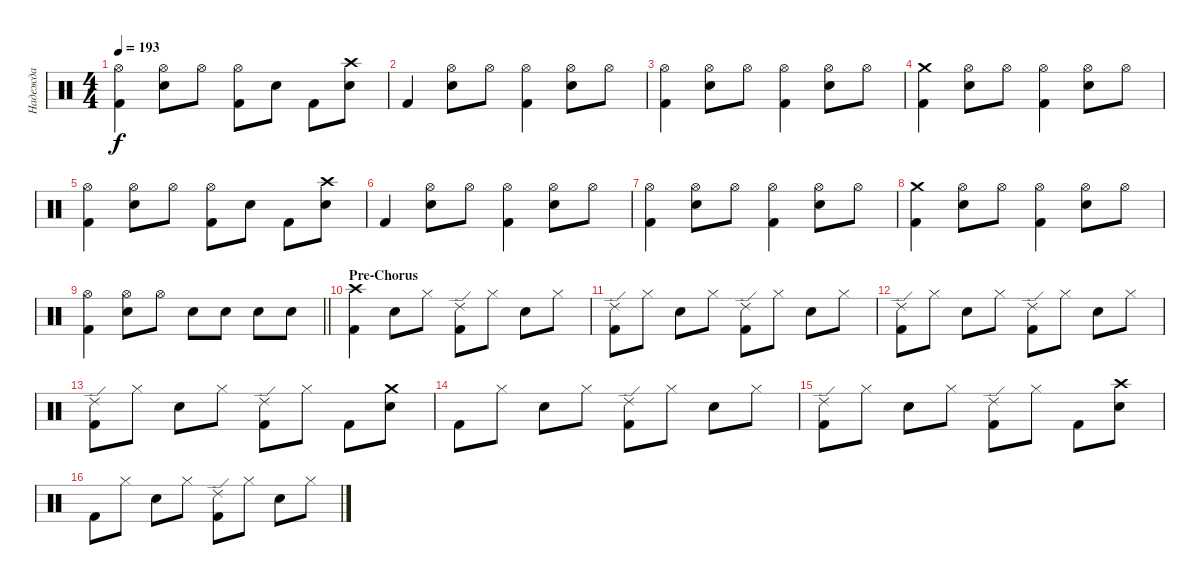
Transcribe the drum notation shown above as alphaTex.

\track ("Надежда" "Надежда") {instrument percussion}
\staff {score}
\articulation defaults
\ts (4 4)
\tempo 193
\clef neutral
\ks c
("Hi-Hat (open)" "Kick (hit) 2").4{dy f} ("Hi-Hat (open)" "Snare (hit) 2").8 "Hi-Hat (open)".8 ("Hi-Hat (open)" "Kick (hit) 2").8 "Snare (hit) 2".8 "Kick (hit) 2".8 ("Crash high (hit)" "Snare (hit) 2").8 |
"Kick (hit) 2".4 ("Hi-Hat (open)" "Snare (hit) 2").8 "Hi-Hat (open)".8 ("Hi-Hat (open)" "Kick (hit) 2").4 ("Hi-Hat (open)" "Snare (hit) 2").8 "Hi-Hat (open)".8 |
("Hi-Hat (open)" "Kick (hit) 2").4 ("Hi-Hat (open)" "Snare (hit) 2").8 "Hi-Hat (open)".8 ("Hi-Hat (open)" "Kick (hit) 2").4 ("Hi-Hat (open)" "Snare (hit) 2").8 "Hi-Hat (open)".8 |
("Crash medium (hit)" "Kick (hit) 2").4 ("Hi-Hat (open)" "Snare (hit) 2").8 "Hi-Hat (open)".8 ("Hi-Hat (open)" "Kick (hit) 2").4 ("Hi-Hat (open)" "Snare (hit) 2").8 "Hi-Hat (open)".8 |
("Hi-Hat (open)" "Kick (hit) 2").4 ("Hi-Hat (open)" "Snare (hit) 2").8 "Hi-Hat (open)".8 ("Hi-Hat (open)" "Kick (hit) 2").8 "Snare (hit) 2".8 "Kick (hit) 2".8 ("Crash high (hit)" "Snare (hit) 2").8 |
"Kick (hit) 2".4 ("Hi-Hat (open)" "Snare (hit) 2").8 "Hi-Hat (open)".8 ("Hi-Hat (open)" "Kick (hit) 2").4 ("Hi-Hat (open)" "Snare (hit) 2").8 "Hi-Hat (open)".8 |
("Hi-Hat (open)" "Kick (hit) 2").4 ("Hi-Hat (open)" "Snare (hit) 2").8 "Hi-Hat (open)".8 ("Hi-Hat (open)" "Kick (hit) 2").4 ("Hi-Hat (open)" "Snare (hit) 2").8 "Hi-Hat (open)".8 |
("Crash medium (hit)" "Kick (hit) 2").4 ("Hi-Hat (open)" "Snare (hit) 2").8 "Hi-Hat (open)".8 ("Hi-Hat (open)" "Kick (hit) 2").4 ("Hi-Hat (open)" "Snare (hit) 2").8 "Hi-Hat (open)".8 |
\barLineRight lightlight
("Hi-Hat (open)" "Kick (hit) 2").4 ("Hi-Hat (open)" "Snare (hit) 2").8 "Hi-Hat (open)".8 "Snare (hit) 2".8 "Snare (hit) 2".8 "Snare (hit) 2".8 "Snare (hit) 2".8 |
\section ("" "Pre-Chorus")
("Crash high (hit)" "Kick (hit) 2").4 "Snare (hit) 2".8 "Hi-Hat (closed)".8 ("Ride (edge) 2" "Kick (hit) 2").8 "Hi-Hat (closed)".8 "Snare (hit) 2".8 "Hi-Hat (closed)".8 |
("Ride (edge) 2" "Kick (hit) 2").8 "Hi-Hat (closed)".8 "Snare (hit) 2".8 "Hi-Hat (closed)".8 ("Ride (edge) 2" "Kick (hit) 2").8 "Hi-Hat (closed)".8 "Snare (hit) 2".8 "Hi-Hat (closed)".8 |
("Ride (edge) 2" "Kick (hit) 2").8 "Hi-Hat (closed)".8 "Snare (hit) 2".8 "Hi-Hat (closed)".8 ("Ride (edge) 2" "Kick (hit) 2").8 "Hi-Hat (closed)".8 "Snare (hit) 2".8 "Hi-Hat (closed)".8 |
("Ride (edge) 2" "Kick (hit) 2").8 "Hi-Hat (closed)".8 "Snare (hit) 2".8 "Hi-Hat (closed)".8 ("Ride (edge) 2" "Kick (hit) 2").8 "Hi-Hat (closed)".8 "Kick (hit) 2".8 ("Crash medium (hit)" "Snare (hit) 2").8 |
"Kick (hit) 2".8 "Hi-Hat (closed)".8 "Snare (hit) 2".8 "Hi-Hat (closed)".8 ("Ride (edge) 2" "Kick (hit) 2").8 "Hi-Hat (closed)".8 "Snare (hit) 2".8 "Hi-Hat (closed)".8 |
("Ride (edge) 2" "Kick (hit) 2").8 "Hi-Hat (closed)".8 "Snare (hit) 2".8 "Hi-Hat (closed)".8 ("Ride (edge) 2" "Kick (hit) 2").8 "Hi-Hat (closed)".8 "Kick (hit) 2".8 ("Crash high (hit)" "Snare (hit) 2").8 |
"Kick (hit) 2".8 "Hi-Hat (closed)".8 "Snare (hit) 2".8 "Hi-Hat (closed)".8 ("Ride (edge) 2" "Kick (hit) 2").8 "Hi-Hat (closed)".8 "Snare (hit) 2".8 "Hi-Hat (closed)".8
